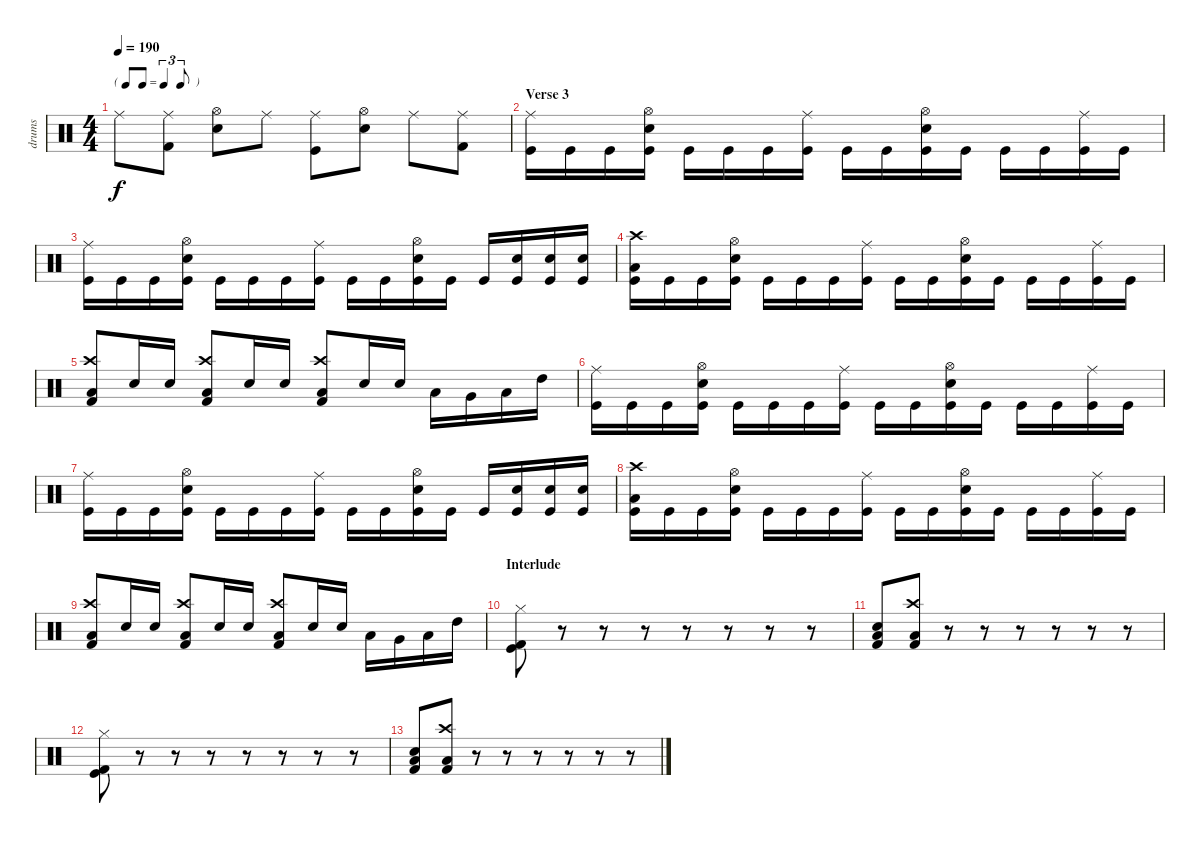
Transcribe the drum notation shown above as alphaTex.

\track ("drums" "drums") {instrument percussion}
\staff {score}
\articulation defaults
\ts (4 4)
\tf triplet8th
\tempo 190
\clef neutral
\ks c "Ride (middle)".8{dy f}
("Ride (middle)" "Kick (hit) 2").8 ("Hi-Hat (open)" "Snare (hit) 2").8 "Ride (middle)".8 ("Ride (middle)" "Kick (hit)").8 ("Hi-Hat (open)" "Snare (hit) 2").8 "Ride (middle)".8 ("Ride (middle)" "Kick (hit) 2").8 |
\section ("" "Verse 3")
("Ride (middle)" "Kick (hit)").16 "Kick (hit)".16 "Kick (hit)".16 ("Hi-Hat (open)" "Electric Snare (hit)" "Kick (hit)").16 "Kick (hit)".16 "Kick (hit)".16 "Kick (hit)".16 ("Ride (middle)" "Kick (hit)").16 "Kick (hit)".16 "Kick (hit)".16 ("Hi-Hat (open)" "Electric Snare (hit)" "Kick (hit)").16 "Kick (hit)".16 "Kick (hit)".16 "Kick (hit)".16 ("Ride (middle)" "Kick (hit)").16 "Kick (hit)".16 |
("Ride (middle)" "Kick (hit)").16 "Kick (hit)".16 "Kick (hit)".16 ("Hi-Hat (open)" "Electric Snare (hit)" "Kick (hit)").16 "Kick (hit)".16 "Kick (hit)".16 "Kick (hit)".16 ("Ride (middle)" "Kick (hit)").16 "Kick (hit)".16 "Kick (hit)".16 ("Hi-Hat (open)" "Electric Snare (hit)" "Kick (hit)").16 "Kick (hit)".16 "Kick (hit)".16 ("Snare (hit) 2" "Kick (hit)").16 ("Snare (hit) 2" "Kick (hit)").16 ("Snare (hit) 2" "Kick (hit)").16 |
("Crash high (hit)" "Low Tom (hit)" "Kick (hit)").16 "Kick (hit)".16 "Kick (hit)".16 ("Hi-Hat (open)" "Electric Snare (hit)" "Kick (hit)").16 "Kick (hit)".16 "Kick (hit)".16 "Kick (hit)".16 ("Ride (middle)" "Kick (hit)").16 "Kick (hit)".16 "Kick (hit)".16 ("Hi-Hat (open)" "Electric Snare (hit)" "Kick (hit)").16 "Kick (hit)".16 "Kick (hit)".16 "Kick (hit)".16 ("Ride (middle)" "Kick (hit)").16 "Kick (hit)".16 |
("Crash high (hit)" "Low Floor Tom (hit)" "Kick (hit) 2").8 "Snare (hit) 2".16 "Snare (hit) 2".16 ("Crash high (hit)" "Low Floor Tom (hit)" "Kick (hit) 2").8 "Snare (hit) 2".16 "Snare (hit) 2".16 ("Crash high (hit)" "Low Floor Tom (hit)" "Kick (hit) 2").8 "Snare (hit) 2".16 "Snare (hit) 2".16 "Low Floor Tom (hit)".16 "Very Low Tom (hit)".16 "Low Tom (hit)".16 "High Tom (hit)".16 |
("Ride (middle)" "Kick (hit)").16 "Kick (hit)".16 "Kick (hit)".16 ("Hi-Hat (open)" "Electric Snare (hit)" "Kick (hit)").16 "Kick (hit)".16 "Kick (hit)".16 "Kick (hit)".16 ("Ride (middle)" "Kick (hit)").16 "Kick (hit)".16 "Kick (hit)".16 ("Hi-Hat (open)" "Electric Snare (hit)" "Kick (hit)").16 "Kick (hit)".16 "Kick (hit)".16 "Kick (hit)".16 ("Ride (middle)" "Kick (hit)").16 "Kick (hit)".16 |
("Ride (middle)" "Kick (hit)").16 "Kick (hit)".16 "Kick (hit)".16 ("Hi-Hat (open)" "Electric Snare (hit)" "Kick (hit)").16 "Kick (hit)".16 "Kick (hit)".16 "Kick (hit)".16 ("Ride (middle)" "Kick (hit)").16 "Kick (hit)".16 "Kick (hit)".16 ("Hi-Hat (open)" "Electric Snare (hit)" "Kick (hit)").16 "Kick (hit)".16 "Kick (hit)".16 ("Snare (hit) 2" "Kick (hit)").16 ("Snare (hit) 2" "Kick (hit)").16 ("Snare (hit) 2" "Kick (hit)").16 |
("Crash high (hit)" "Low Tom (hit)" "Kick (hit)").16 "Kick (hit)".16 "Kick (hit)".16 ("Hi-Hat (open)" "Electric Snare (hit)" "Kick (hit)").16 "Kick (hit)".16 "Kick (hit)".16 "Kick (hit)".16 ("Ride (middle)" "Kick (hit)").16 "Kick (hit)".16 "Kick (hit)".16 ("Hi-Hat (open)" "Electric Snare (hit)" "Kick (hit)").16 "Kick (hit)".16 "Kick (hit)".16 "Kick (hit)".16 ("Ride (middle)" "Kick (hit)").16 "Kick (hit)".16 |
("Crash high (hit)" "Low Floor Tom (hit)" "Kick (hit) 2").8 "Snare (hit) 2".16 "Snare (hit) 2".16 ("Crash high (hit)" "Low Floor Tom (hit)" "Kick (hit) 2").8 "Snare (hit) 2".16 "Snare (hit) 2".16 ("Crash high (hit)" "Low Floor Tom (hit)" "Kick (hit) 2").8 "Snare (hit) 2".16 "Snare (hit) 2".16 "Low Floor Tom (hit)".16 "Very Low Tom (hit)".16 "Low Tom (hit)".16 "High Tom (hit)".16 |
\section ("" "Interlude")
("Kick (hit)" "Kick (hit) 2" "Hi-Hat (closed)").8 r.8 r.8 r.8 r.8 r.8 r.8 r.8 |
("Electric Snare (hit)" "Low Floor Tom (hit)" "Kick (hit) 2").8 ("Crash high (hit)" "Low Floor Tom (hit)" "Kick (hit) 2").8 r.8 r.8 r.8 r.8 r.8 r.8 |
("Kick (hit)" "Kick (hit) 2" "Hi-Hat (closed)").8 r.8 r.8 r.8 r.8 r.8 r.8 r.8 |
("Electric Snare (hit)" "Low Floor Tom (hit)" "Kick (hit) 2").8 ("Crash high (hit)" "Low Floor Tom (hit)" "Kick (hit) 2").8 r.8 r.8 r.8 r.8 r.8 r.8
